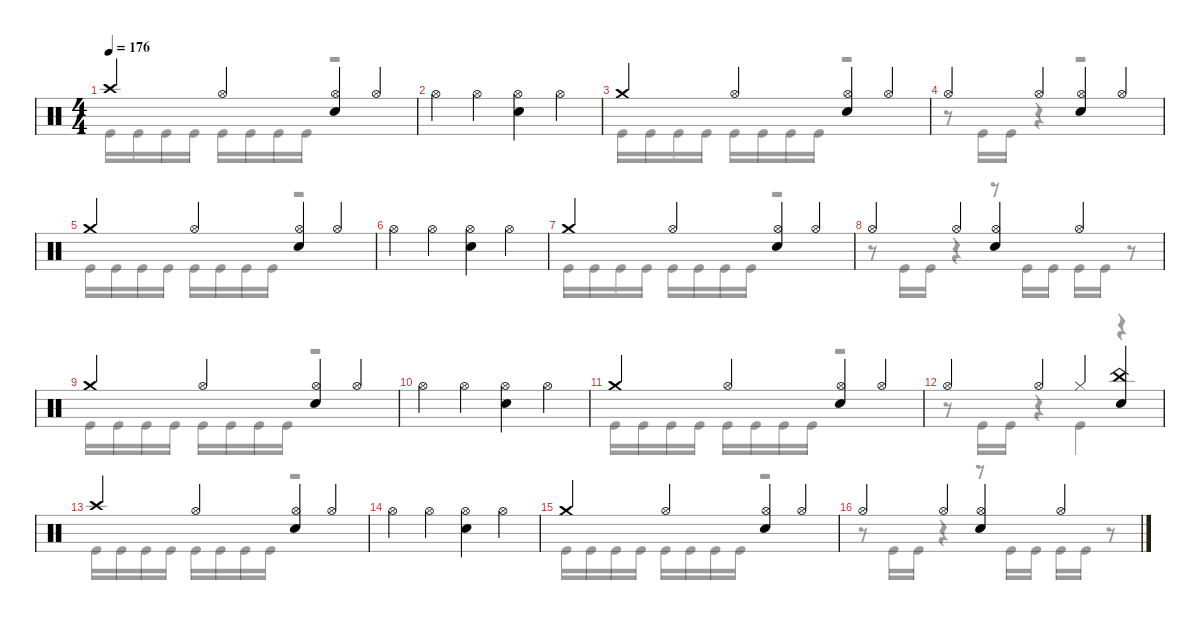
\defaultSystemsLayout 4
\hideDynamics
\bracketExtendMode nobrackets
\singleTrackTrackNamePolicy hidden
\multiTrackTrackNamePolicy hidden
\firstSystemTrackNameMode fullname
\firstSystemTrackNameOrientation horizontal
\otherSystemsTrackNameOrientation horizontal
\track ("Drums" "drm.") {instrument percussion}
\staff {score}
\articulation defaults
\voice
\ts (4 4)
\tempo 176
\clef neutral
\ks c "Crash high (hit)".4{dy f beam Up} "Hi-Hat (open)".4{beam Up}
("Hi-Hat (open)" "Snare (hit) 2").4{beam Up} "Hi-Hat (open)".4{beam Up} |
"Hi-Hat (open)".4{beam Down} "Hi-Hat (open)".4{beam Down} ("Hi-Hat (open)" "Snare (hit) 2").4{beam Down} "Hi-Hat (open)".4{beam Down} |
"Crash medium (hit)".4{beam Up} "Hi-Hat (open)".4{beam Up} ("Hi-Hat (open)" "Snare (hit) 2").4{beam Up} "Hi-Hat (open)".4{beam Up} |
"Hi-Hat (open)".4{beam Up} "Hi-Hat (open)".4{beam Up} ("Hi-Hat (open)" "Snare (hit) 2").4{beam Up} "Hi-Hat (open)".4{beam Up} |
"Crash medium (hit)".4{beam Up} "Hi-Hat (open)".4{beam Up} ("Hi-Hat (open)" "Snare (hit) 2").4{beam Up} "Hi-Hat (open)".4{beam Up} |
"Hi-Hat (open)".4{beam Down} "Hi-Hat (open)".4{beam Down} ("Hi-Hat (open)" "Snare (hit) 2").4{beam Down} "Hi-Hat (open)".4{beam Down} |
"Crash medium (hit)".4{beam Up} "Hi-Hat (open)".4{beam Up} ("Hi-Hat (open)" "Snare (hit) 2").4{beam Up} "Hi-Hat (open)".4{beam Up} |
"Hi-Hat (open)".4{beam Up} "Hi-Hat (open)".4{beam Up} ("Hi-Hat (open)" "Snare (hit) 2").4{beam Up} "Hi-Hat (open)".4{beam Up} |
"Crash medium (hit)".4{beam Up} "Hi-Hat (open)".4{beam Up} ("Hi-Hat (open)" "Snare (hit) 2").4{beam Up} "Hi-Hat (open)".4{beam Up} |
"Hi-Hat (open)".4{beam Down} "Hi-Hat (open)".4{beam Down} ("Hi-Hat (open)" "Snare (hit) 2").4{beam Down} "Hi-Hat (open)".4{beam Down} |
"Crash medium (hit)".4{beam Up} "Hi-Hat (open)".4{beam Up} ("Hi-Hat (open)" "Snare (hit) 2").4{beam Up} "Hi-Hat (open)".4{beam Up} |
"Hi-Hat (open)".4{beam Up} "Hi-Hat (open)".4{beam Up} "Hi-Hat (closed)".4{beam Up} ("China (hit)" "Snare (hit) 2").4{beam Up} |
"Crash high (hit)".4{beam Up} "Hi-Hat (open)".4{beam Up} ("Hi-Hat (open)" "Snare (hit) 2").4{beam Up} "Hi-Hat (open)".4{beam Up} |
"Hi-Hat (open)".4{beam Down} "Hi-Hat (open)".4{beam Down} ("Hi-Hat (open)" "Snare (hit) 2").4{beam Down} "Hi-Hat (open)".4{beam Down} |
"Crash medium (hit)".4{beam Up} "Hi-Hat (open)".4{beam Up} ("Hi-Hat (open)" "Snare (hit) 2").4{beam Up} "Hi-Hat (open)".4{beam Up} |
"Hi-Hat (open)".4{beam Up} "Hi-Hat (open)".4{beam Up} ("Hi-Hat (open)" "Snare (hit) 2").4{beam Up} "Hi-Hat (open)".4{beam Up}
\voice
\clef neutral
\ottava regular
\simile none
\ks c "Kick (hit)".16{dy f beam Down} "Kick (hit)".16{beam Down} "Kick (hit)".16{beam Down} "Kick (hit)".16{beam Down} "Kick (hit)".16{beam Down} "Kick (hit)".16{beam Down} "Kick (hit)".16{beam Down} "Kick (hit)".16{beam Down}
r.2{beam Down} |
|
"Kick (hit)".16{beam Down} "Kick (hit)".16{beam Down} "Kick (hit)".16{beam Down} "Kick (hit)".16{beam Down} "Kick (hit)".16{beam Down} "Kick (hit)".16{beam Down} "Kick (hit)".16{beam Down} "Kick (hit)".16{beam Down} r.2{beam Down} |
r.8{beam Down} "Kick (hit)".16{beam Down} "Kick (hit)".16{beam Down} r.4{beam Down} r.2{beam Down} |
"Kick (hit)".16{beam Down} "Kick (hit)".16{beam Down} "Kick (hit)".16{beam Down} "Kick (hit)".16{beam Down} "Kick (hit)".16{beam Down} "Kick (hit)".16{beam Down} "Kick (hit)".16{beam Down} "Kick (hit)".16{beam Down} r.2{beam Down} |
|
"Kick (hit)".16{beam Down} "Kick (hit)".16{beam Down} "Kick (hit)".16{beam Down} "Kick (hit)".16{beam Down} "Kick (hit)".16{beam Down} "Kick (hit)".16{beam Down} "Kick (hit)".16{beam Down} "Kick (hit)".16{beam Down} r.2{beam Down} |
r.8{beam Down} "Kick (hit)".16{beam Down} "Kick (hit)".16{beam Down} r.4{beam Down} r.8{beam Down} "Kick (hit)".16{beam Down} "Kick (hit)".16{beam Down} "Kick (hit)".16{beam Down} "Kick (hit)".16{beam Down} r.8{beam Down} |
"Kick (hit)".16{beam Down} "Kick (hit)".16{beam Down} "Kick (hit)".16{beam Down} "Kick (hit)".16{beam Down} "Kick (hit)".16{beam Down} "Kick (hit)".16{beam Down} "Kick (hit)".16{beam Down} "Kick (hit)".16{beam Down} r.2{beam Down} |
|
"Kick (hit)".16{beam Down} "Kick (hit)".16{beam Down} "Kick (hit)".16{beam Down} "Kick (hit)".16{beam Down} "Kick (hit)".16{beam Down} "Kick (hit)".16{beam Down} "Kick (hit)".16{beam Down} "Kick (hit)".16{beam Down} r.2{beam Down} |
r.8{beam Down} "Kick (hit)".16{beam Down} "Kick (hit)".16{beam Down} r.4{beam Down} "Kick (hit)".4{beam Down} r.4{beam Down} |
"Kick (hit)".16{beam Down} "Kick (hit)".16{beam Down} "Kick (hit)".16{beam Down} "Kick (hit)".16{beam Down} "Kick (hit)".16{beam Down} "Kick (hit)".16{beam Down} "Kick (hit)".16{beam Down} "Kick (hit)".16{beam Down} r.2{beam Down} |
|
"Kick (hit)".16{beam Down} "Kick (hit)".16{beam Down} "Kick (hit)".16{beam Down} "Kick (hit)".16{beam Down} "Kick (hit)".16{beam Down} "Kick (hit)".16{beam Down} "Kick (hit)".16{beam Down} "Kick (hit)".16{beam Down} r.2{beam Down} |
r.8{beam Down} "Kick (hit)".16{beam Down} "Kick (hit)".16{beam Down} r.4{beam Down} r.8{beam Down} "Kick (hit)".16{beam Down} "Kick (hit)".16{beam Down} "Kick (hit)".16{beam Down} "Kick (hit)".16{beam Down} r.8{beam Down}
